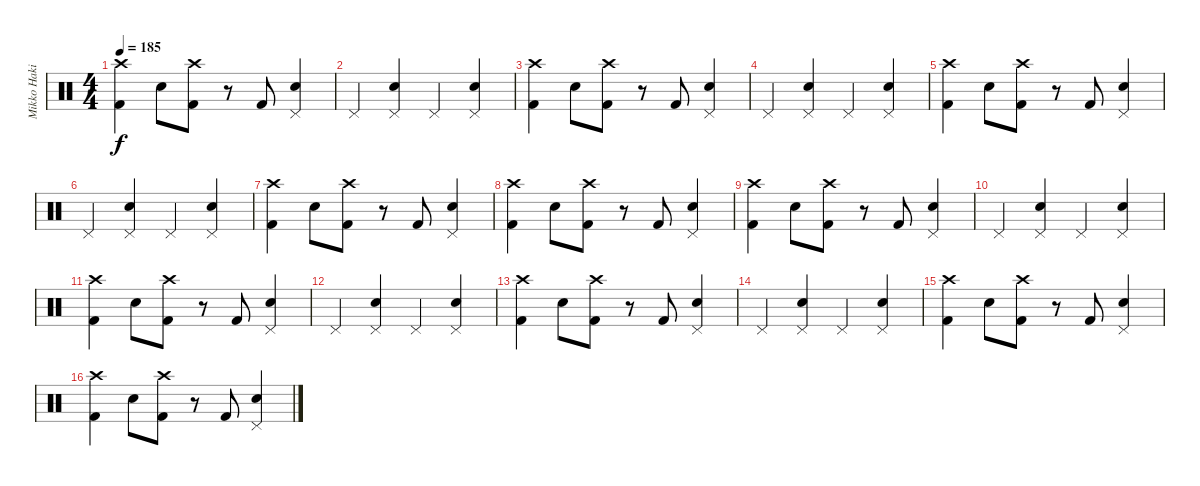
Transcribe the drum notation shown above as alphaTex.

\track ("Mikko Hakila" "Mikko Haki") {instrument percussion}
\staff {score}
\articulation defaults
\ts (4 4)
\tempo 185
\clef neutral
\ks c
("Crash high (hit)" "Kick (hit) 2").4{dy f} "Snare (hit) 2".8 ("Crash high (hit)" "Kick (hit) 2").8 r.8 "Kick (hit) 2".8 ("Pedal Hi-Hat (hit)" "Snare (hit) 2").4 |
"Pedal Hi-Hat (hit)".4 ("Pedal Hi-Hat (hit)" "Snare (hit) 2").4 "Pedal Hi-Hat (hit)".4 ("Pedal Hi-Hat (hit)" "Snare (hit) 2").4 |
("Crash high (hit)" "Kick (hit) 2").4 "Snare (hit) 2".8 ("Crash high (hit)" "Kick (hit) 2").8 r.8 "Kick (hit) 2".8 ("Pedal Hi-Hat (hit)" "Snare (hit) 2").4 |
"Pedal Hi-Hat (hit)".4 ("Pedal Hi-Hat (hit)" "Snare (hit) 2").4 "Pedal Hi-Hat (hit)".4 ("Pedal Hi-Hat (hit)" "Snare (hit) 2").4 |
("Crash high (hit)" "Kick (hit) 2").4 "Snare (hit) 2".8 ("Crash high (hit)" "Kick (hit) 2").8 r.8 "Kick (hit) 2".8 ("Pedal Hi-Hat (hit)" "Snare (hit) 2").4 |
"Pedal Hi-Hat (hit)".4 ("Pedal Hi-Hat (hit)" "Snare (hit) 2").4 "Pedal Hi-Hat (hit)".4 ("Pedal Hi-Hat (hit)" "Snare (hit) 2").4 |
("Crash high (hit)" "Kick (hit) 2").4 "Snare (hit) 2".8 ("Crash high (hit)" "Kick (hit) 2").8 r.8 "Kick (hit) 2".8 ("Pedal Hi-Hat (hit)" "Snare (hit) 2").4 |
("Crash high (hit)" "Kick (hit) 2").4 "Snare (hit) 2".8 ("Crash high (hit)" "Kick (hit) 2").8 r.8 "Kick (hit) 2".8 ("Pedal Hi-Hat (hit)" "Snare (hit) 2").4 |
("Crash high (hit)" "Kick (hit) 2").4 "Snare (hit) 2".8 ("Crash high (hit)" "Kick (hit) 2").8 r.8 "Kick (hit) 2".8 ("Pedal Hi-Hat (hit)" "Snare (hit) 2").4 |
"Pedal Hi-Hat (hit)".4 ("Pedal Hi-Hat (hit)" "Snare (hit) 2").4 "Pedal Hi-Hat (hit)".4 ("Pedal Hi-Hat (hit)" "Snare (hit) 2").4 |
("Crash high (hit)" "Kick (hit) 2").4 "Snare (hit) 2".8 ("Crash high (hit)" "Kick (hit) 2").8 r.8 "Kick (hit) 2".8 ("Pedal Hi-Hat (hit)" "Snare (hit) 2").4 |
"Pedal Hi-Hat (hit)".4 ("Pedal Hi-Hat (hit)" "Snare (hit) 2").4 "Pedal Hi-Hat (hit)".4 ("Pedal Hi-Hat (hit)" "Snare (hit) 2").4 |
("Crash high (hit)" "Kick (hit) 2").4 "Snare (hit) 2".8 ("Crash high (hit)" "Kick (hit) 2").8 r.8 "Kick (hit) 2".8 ("Pedal Hi-Hat (hit)" "Snare (hit) 2").4 |
"Pedal Hi-Hat (hit)".4 ("Pedal Hi-Hat (hit)" "Snare (hit) 2").4 "Pedal Hi-Hat (hit)".4 ("Pedal Hi-Hat (hit)" "Snare (hit) 2").4 |
("Crash high (hit)" "Kick (hit) 2").4 "Snare (hit) 2".8 ("Crash high (hit)" "Kick (hit) 2").8 r.8 "Kick (hit) 2".8 ("Pedal Hi-Hat (hit)" "Snare (hit) 2").4 |
("Crash high (hit)" "Kick (hit) 2").4 "Snare (hit) 2".8 ("Crash high (hit)" "Kick (hit) 2").8 r.8 "Kick (hit) 2".8 ("Pedal Hi-Hat (hit)" "Snare (hit) 2").4
